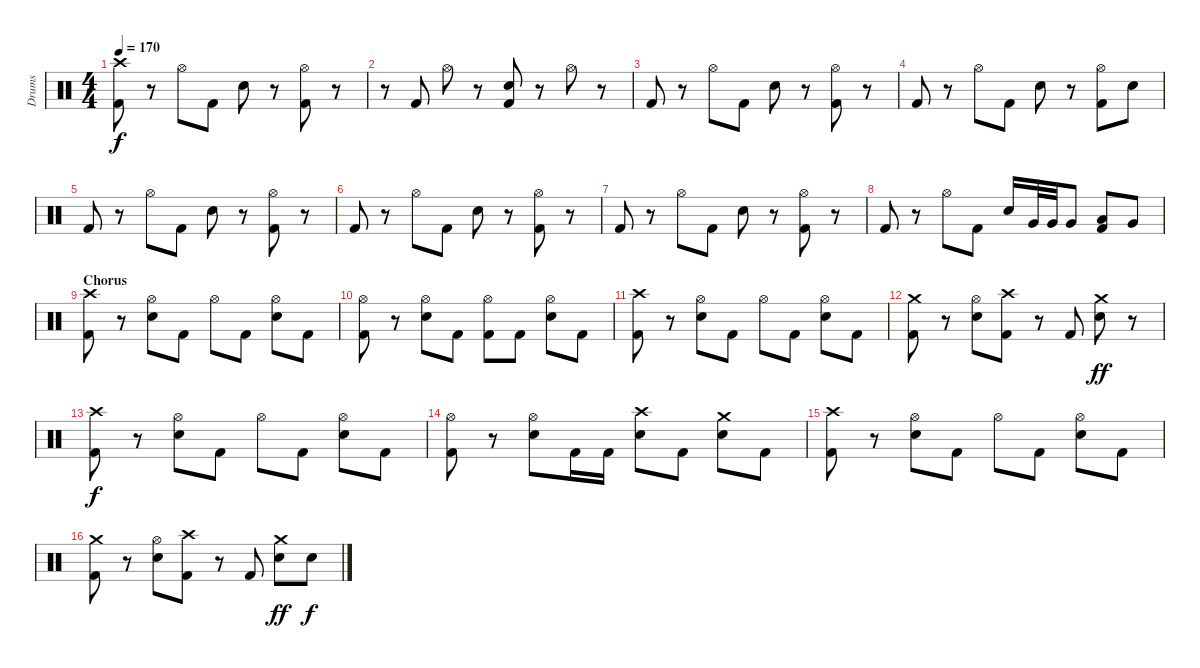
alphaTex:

\track ("Drums" "Drums") {instrument percussion}
\staff {score}
\articulation defaults
\ts (4 4)
\tempo 170
\clef neutral
\ks c
("Kick (hit) 2" "Crash high (hit)").8{dy f} r.8 "Hi-Hat (open)".8 "Kick (hit) 2".8 "Electric Snare (hit)".8 r.8 ("Kick (hit) 2" "Hi-Hat (open)").8 r.8 |
r.8 "Kick (hit) 2".8 "Hi-Hat (open)".8 r.8 ("Kick (hit) 2" "Electric Snare (hit)").8 r.8 "Hi-Hat (open)".8 r.8 |
"Kick (hit) 2".8 r.8 "Hi-Hat (open)".8 "Kick (hit) 2".8 "Electric Snare (hit)".8 r.8 ("Kick (hit) 2" "Hi-Hat (open)").8 r.8 |
"Kick (hit) 2".8 r.8 "Hi-Hat (open)".8 "Kick (hit) 2".8 "Electric Snare (hit)".8 r.8 ("Kick (hit) 2" "Hi-Hat (open)").8 "Electric Snare (hit)".8 |
"Kick (hit) 2".8 r.8 "Hi-Hat (open)".8 "Kick (hit) 2".8 "Electric Snare (hit)".8 r.8 ("Kick (hit) 2" "Hi-Hat (open)").8 r.8 |
"Kick (hit) 2".8 r.8 "Hi-Hat (open)".8 "Kick (hit) 2".8 "Electric Snare (hit)".8 r.8 ("Kick (hit) 2" "Hi-Hat (open)").8 r.8 |
"Kick (hit) 2".8 r.8 "Hi-Hat (open)".8 "Kick (hit) 2".8 "Electric Snare (hit)".8 r.8 ("Kick (hit) 2" "Hi-Hat (open)").8 r.8 |
"Kick (hit) 2".8 r.8 "Hi-Hat (open)".8 "Kick (hit) 2".8 "Electric Snare (hit)".16 "Very Low Tom (hit)".32 "Very Low Tom (hit)".32 "Very Low Tom (hit)".8 ("Kick (hit) 2" "Low Tom (hit)").8 "Very Low Tom (hit)".8 |
\section ("" "Chorus")
("Kick (hit) 2" "Crash high (hit)").8 r.8 ("Hi-Hat (open)" "Electric Snare (hit)").8 "Kick (hit) 2".8 "Hi-Hat (open)".8 "Kick (hit) 2".8 ("Hi-Hat (open)" "Electric Snare (hit)").8 "Kick (hit) 2".8 |
("Kick (hit) 2" "Hi-Hat (open)").8 r.8 ("Hi-Hat (open)" "Electric Snare (hit)").8 "Kick (hit) 2".8 ("Kick (hit) 2" "Hi-Hat (open)").8 "Kick (hit) 2".8 ("Hi-Hat (open)" "Electric Snare (hit)").8 "Kick (hit) 2".8 |
("Kick (hit) 2" "Crash high (hit)").8 r.8 ("Hi-Hat (open)" "Electric Snare (hit)").8 "Kick (hit) 2".8 "Hi-Hat (open)".8 "Kick (hit) 2".8 ("Hi-Hat (open)" "Electric Snare (hit)").8 "Kick (hit) 2".8 |
("Kick (hit) 2" "Crash medium (hit)").8 r.8 ("Hi-Hat (open)" "Electric Snare (hit)").8 ("Kick (hit) 2" "Crash high (hit)").8 r.8 "Kick (hit) 2".8 ("Electric Snare (hit)" "Crash medium (hit)").8{dy ff} r.8 |
("Kick (hit) 2" "Crash high (hit)").8{dy f} r.8 ("Hi-Hat (open)" "Electric Snare (hit)").8 "Kick (hit) 2".8 "Hi-Hat (open)".8 "Kick (hit) 2".8 ("Hi-Hat (open)" "Electric Snare (hit)").8 "Kick (hit) 2".8 |
("Kick (hit) 2" "Hi-Hat (open)").8 r.8 ("Hi-Hat (open)" "Electric Snare (hit)").8 "Kick (hit) 2".16 "Kick (hit) 2".16 ("Electric Snare (hit)" "Crash high (hit)").8 "Kick (hit) 2".8 ("Electric Snare (hit)" "Crash medium (hit)").8 "Kick (hit) 2".8 |
("Kick (hit) 2" "Crash high (hit)").8 r.8 ("Hi-Hat (open)" "Electric Snare (hit)").8 "Kick (hit) 2".8 "Hi-Hat (open)".8 "Kick (hit) 2".8 ("Hi-Hat (open)" "Electric Snare (hit)").8 "Kick (hit) 2".8 |
("Kick (hit) 2" "Crash medium (hit)").8 r.8 ("Hi-Hat (open)" "Electric Snare (hit)").8 ("Kick (hit) 2" "Crash high (hit)").8 r.8 "Kick (hit) 2".8 ("Electric Snare (hit)" "Crash medium (hit)").8{dy ff} "Electric Snare (hit)".8{dy f}
